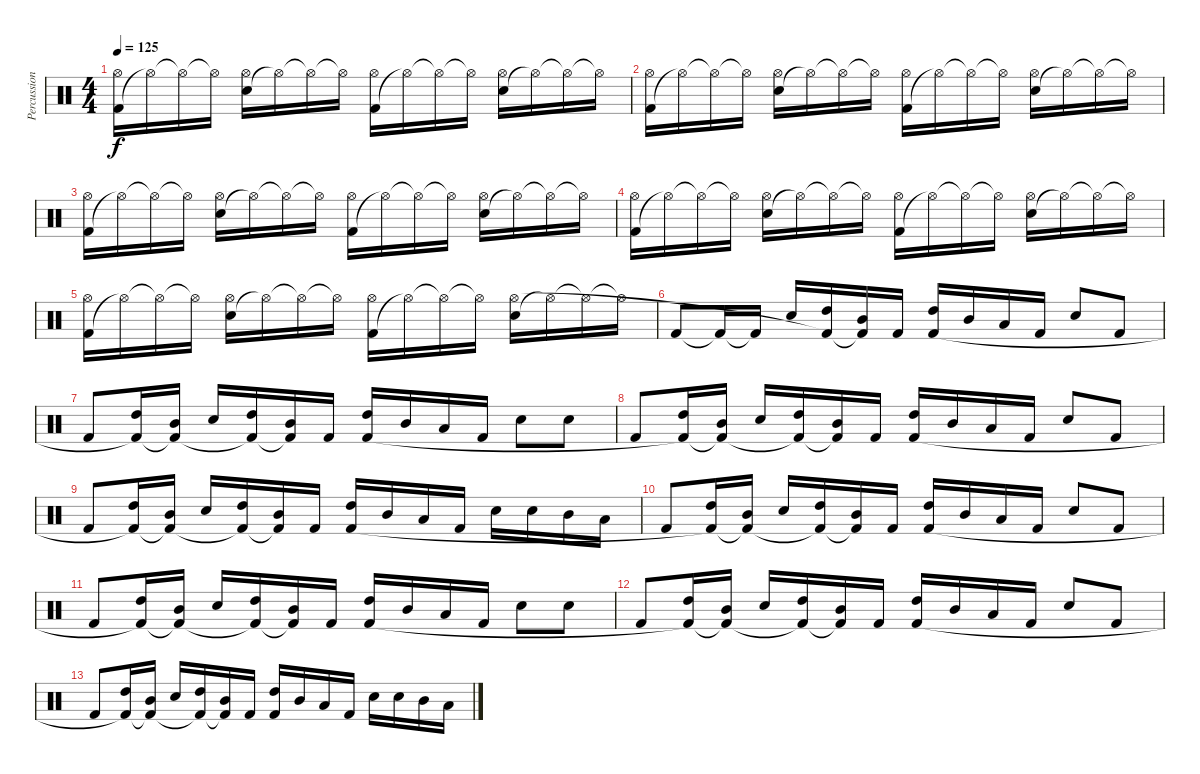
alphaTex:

\track ("Percussions" "Percussion") {instrument percussion}
\staff {score}
\articulation defaults
\ts (4 4)
\tempo 125
\clef neutral
\ks c
("Kick (hit) 2" "Hi-Hat (open)").16{dy f} "Hi-Hat (open)"{t}.16 "Hi-Hat (open)"{t}.16 "Hi-Hat (open)"{t}.16 ("Electric Snare (hit)" "Hi-Hat (open)").16 "Hi-Hat (open)"{t}.16 "Hi-Hat (open)"{t}.16 "Hi-Hat (open)"{t}.16 ("Kick (hit) 2" "Hi-Hat (open)").16 "Hi-Hat (open)"{t}.16 "Hi-Hat (open)"{t}.16 "Hi-Hat (open)"{t}.16 ("Electric Snare (hit)" "Hi-Hat (open)").16 "Hi-Hat (open)"{t}.16 "Hi-Hat (open)"{t}.16 "Hi-Hat (open)"{t}.16 |
("Kick (hit) 2" "Hi-Hat (open)").16 "Hi-Hat (open)"{t}.16 "Hi-Hat (open)"{t}.16 "Hi-Hat (open)"{t}.16 ("Electric Snare (hit)" "Hi-Hat (open)").16 "Hi-Hat (open)"{t}.16 "Hi-Hat (open)"{t}.16 "Hi-Hat (open)"{t}.16 ("Kick (hit) 2" "Hi-Hat (open)").16 "Hi-Hat (open)"{t}.16 "Hi-Hat (open)"{t}.16 "Hi-Hat (open)"{t}.16 ("Electric Snare (hit)" "Hi-Hat (open)").16 "Hi-Hat (open)"{t}.16 "Hi-Hat (open)"{t}.16 "Hi-Hat (open)"{t}.16 |
("Kick (hit) 2" "Hi-Hat (open)").16 "Hi-Hat (open)"{t}.16 "Hi-Hat (open)"{t}.16 "Hi-Hat (open)"{t}.16 ("Electric Snare (hit)" "Hi-Hat (open)").16 "Hi-Hat (open)"{t}.16 "Hi-Hat (open)"{t}.16 "Hi-Hat (open)"{t}.16 ("Kick (hit) 2" "Hi-Hat (open)").16 "Hi-Hat (open)"{t}.16 "Hi-Hat (open)"{t}.16 "Hi-Hat (open)"{t}.16 ("Electric Snare (hit)" "Hi-Hat (open)").16 "Hi-Hat (open)"{t}.16 "Hi-Hat (open)"{t}.16 "Hi-Hat (open)"{t}.16 |
("Kick (hit) 2" "Hi-Hat (open)").16 "Hi-Hat (open)"{t}.16 "Hi-Hat (open)"{t}.16 "Hi-Hat (open)"{t}.16 ("Electric Snare (hit)" "Hi-Hat (open)").16 "Hi-Hat (open)"{t}.16 "Hi-Hat (open)"{t}.16 "Hi-Hat (open)"{t}.16 ("Kick (hit) 2" "Hi-Hat (open)").16 "Hi-Hat (open)"{t}.16 "Hi-Hat (open)"{t}.16 "Hi-Hat (open)"{t}.16 ("Electric Snare (hit)" "Hi-Hat (open)").16 "Hi-Hat (open)"{t}.16 "Hi-Hat (open)"{t}.16 "Hi-Hat (open)"{t}.16 |
("Kick (hit) 2" "Hi-Hat (open)").16 "Hi-Hat (open)"{t}.16 "Hi-Hat (open)"{t}.16 "Hi-Hat (open)"{t}.16 ("Electric Snare (hit)" "Hi-Hat (open)").16 "Hi-Hat (open)"{t}.16 "Hi-Hat (open)"{t}.16 "Hi-Hat (open)"{t}.16 ("Kick (hit) 2" "Hi-Hat (open)").16 "Hi-Hat (open)"{t}.16 "Hi-Hat (open)"{t}.16 "Hi-Hat (open)"{t}.16 ("Electric Snare (hit)" "Hi-Hat (open)").16 "Hi-Hat (open)"{t}.16 "Hi-Hat (open)"{t}.16 "Hi-Hat (open)"{t}.16 |
"Kick (hit) 2".8 "Kick (hit) 2"{t}.16 "Kick (hit) 2"{t}.16 "Electric Snare (hit)".16 ("High Tom (hit)" "Kick (hit) 2"{t}).16 ("Mid Tom (hit)" "Kick (hit) 2"{t}).16 "Kick (hit) 2".16 ("High Tom (hit)" "Kick (hit) 2").16 "Mid Tom (hit)".16 "Low Tom (hit)".16 "Kick (hit) 2".16 "Electric Snare (hit)".8 "Kick (hit) 2".8 |
"Kick (hit) 2".8 ("High Tom (hit)" "Kick (hit) 2"{t}).16 ("Mid Tom (hit)" "Kick (hit) 2"{t}).16 "Electric Snare (hit)".16 ("High Tom (hit)" "Kick (hit) 2"{t}).16 ("Mid Tom (hit)" "Kick (hit) 2"{t}).16 "Kick (hit) 2".16 ("High Tom (hit)" "Kick (hit) 2").16 "Mid Tom (hit)".16 "Low Tom (hit)".16 "Kick (hit) 2".16 "Electric Snare (hit)".8 "Electric Snare (hit)".8 |
"Kick (hit) 2".8 ("High Tom (hit)" "Kick (hit) 2"{t}).16 ("Mid Tom (hit)" "Kick (hit) 2"{t}).16 "Electric Snare (hit)".16 ("High Tom (hit)" "Kick (hit) 2"{t}).16 ("Mid Tom (hit)" "Kick (hit) 2"{t}).16 "Kick (hit) 2".16 ("High Tom (hit)" "Kick (hit) 2").16 "Mid Tom (hit)".16 "Low Tom (hit)".16 "Kick (hit) 2".16 "Electric Snare (hit)".8 "Kick (hit) 2".8 |
"Kick (hit) 2".8 ("High Tom (hit)" "Kick (hit) 2"{t}).16 ("Mid Tom (hit)" "Kick (hit) 2"{t}).16 "Electric Snare (hit)".16 ("High Tom (hit)" "Kick (hit) 2"{t}).16 ("Mid Tom (hit)" "Kick (hit) 2"{t}).16 "Kick (hit) 2".16 ("High Tom (hit)" "Kick (hit) 2").16 "Mid Tom (hit)".16 "Low Tom (hit)".16 "Kick (hit) 2".16 "Electric Snare (hit)".16 "Electric Snare (hit)".16 "Mid Tom (hit)".16 "Low Tom (hit)".16 |
"Kick (hit) 2".8 ("High Tom (hit)" "Kick (hit) 2"{t}).16 ("Mid Tom (hit)" "Kick (hit) 2"{t}).16 "Electric Snare (hit)".16 ("High Tom (hit)" "Kick (hit) 2"{t}).16 ("Mid Tom (hit)" "Kick (hit) 2"{t}).16 "Kick (hit) 2".16 ("High Tom (hit)" "Kick (hit) 2").16 "Mid Tom (hit)".16 "Low Tom (hit)".16 "Kick (hit) 2".16 "Electric Snare (hit)".8 "Kick (hit) 2".8 |
"Kick (hit) 2".8 ("High Tom (hit)" "Kick (hit) 2"{t}).16 ("Mid Tom (hit)" "Kick (hit) 2"{t}).16 "Electric Snare (hit)".16 ("High Tom (hit)" "Kick (hit) 2"{t}).16 ("Mid Tom (hit)" "Kick (hit) 2"{t}).16 "Kick (hit) 2".16 ("High Tom (hit)" "Kick (hit) 2").16 "Mid Tom (hit)".16 "Low Tom (hit)".16 "Kick (hit) 2".16 "Electric Snare (hit)".8 "Electric Snare (hit)".8 |
"Kick (hit) 2".8 ("High Tom (hit)" "Kick (hit) 2"{t}).16 ("Mid Tom (hit)" "Kick (hit) 2"{t}).16 "Electric Snare (hit)".16 ("High Tom (hit)" "Kick (hit) 2"{t}).16 ("Mid Tom (hit)" "Kick (hit) 2"{t}).16 "Kick (hit) 2".16 ("High Tom (hit)" "Kick (hit) 2").16 "Mid Tom (hit)".16 "Low Tom (hit)".16 "Kick (hit) 2".16 "Electric Snare (hit)".8 "Kick (hit) 2".8 |
"Kick (hit) 2".8 ("High Tom (hit)" "Kick (hit) 2"{t}).16 ("Mid Tom (hit)" "Kick (hit) 2"{t}).16 "Electric Snare (hit)".16 ("High Tom (hit)" "Kick (hit) 2"{t}).16 ("Mid Tom (hit)" "Kick (hit) 2"{t}).16 "Kick (hit) 2".16 ("High Tom (hit)" "Kick (hit) 2").16 "Mid Tom (hit)".16 "Low Tom (hit)".16 "Kick (hit) 2".16 "Electric Snare (hit)".16 "Electric Snare (hit)".16 "Mid Tom (hit)".16 "Low Tom (hit)".16
